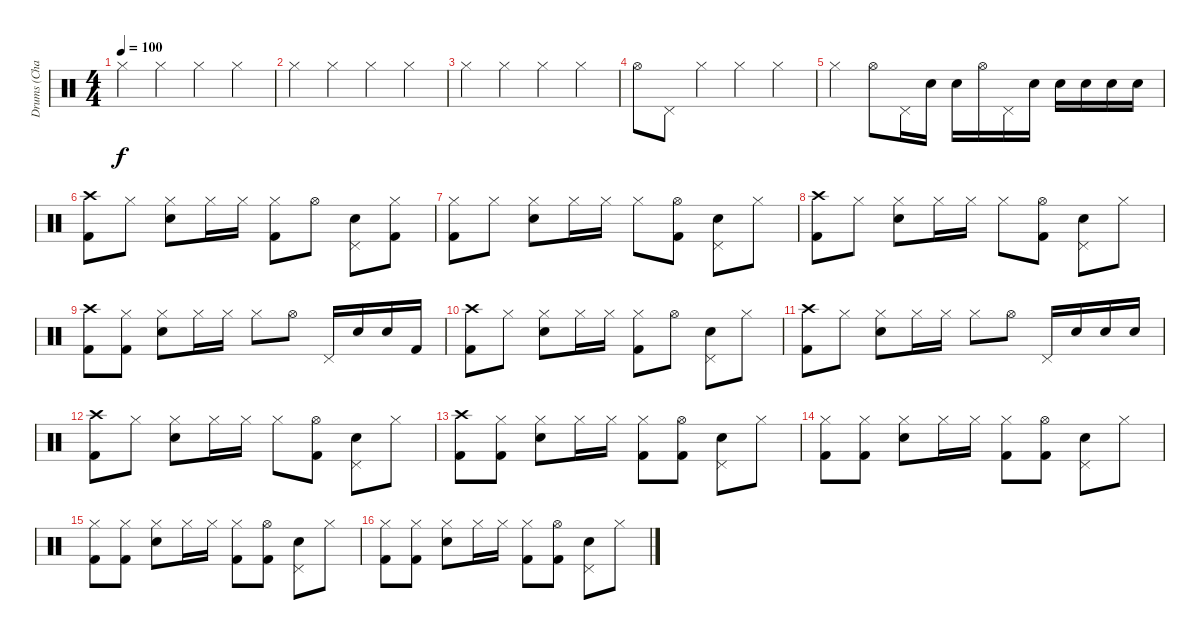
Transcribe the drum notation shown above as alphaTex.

\track ("Drums (Charlie)" "Drums (Cha") {instrument percussion}
\staff {score}
\articulation defaults
\ts (4 4)
\tempo 100
\clef neutral
\ks c "Hi-Hat (closed)".4{dy f} "Hi-Hat (closed)".4 "Hi-Hat (closed)".4 "Hi-Hat (closed)".4
|
"Hi-Hat (closed)".4 "Hi-Hat (closed)".4 "Hi-Hat (closed)".4 "Hi-Hat (closed)".4 |
"Hi-Hat (closed)".4 "Hi-Hat (closed)".4 "Hi-Hat (closed)".4 "Hi-Hat (closed)".4 |
"Hi-Hat (open)".8 "Pedal Hi-Hat (hit)".8 "Hi-Hat (closed)".4 "Hi-Hat (closed)".4 "Hi-Hat (closed)".4 |
"Hi-Hat (closed)".4 "Hi-Hat (open)".8 "Pedal Hi-Hat (hit)".16 "Electric Snare (hit)".16 "Electric Snare (hit)".16 "Hi-Hat (open)".16 "Pedal Hi-Hat (hit)".16 "Electric Snare (hit)".16 "Electric Snare (hit)".16 "Electric Snare (hit)".16 "Electric Snare (hit)".16 "Electric Snare (hit)".16 |
("Crash high (hit)" "Kick (hit) 2").8 "Hi-Hat (closed)".8 ("Hi-Hat (closed)" "Electric Snare (hit)").8 "Hi-Hat (closed)".16 "Hi-Hat (closed)".16 ("Hi-Hat (closed)" "Kick (hit) 2").8 "Hi-Hat (open)".8 ("Pedal Hi-Hat (hit)" "Electric Snare (hit)").8 ("Hi-Hat (closed)" "Kick (hit) 2").8 |
("Hi-Hat (closed)" "Kick (hit) 2").8 "Hi-Hat (closed)".8 ("Hi-Hat (closed)" "Electric Snare (hit)").8 "Hi-Hat (closed)".16 "Hi-Hat (closed)".16 "Hi-Hat (closed)".8 ("Hi-Hat (open)" "Kick (hit) 2").8 ("Pedal Hi-Hat (hit)" "Electric Snare (hit)").8 "Hi-Hat (closed)".8 |
("Crash high (hit)" "Kick (hit) 2").8 "Hi-Hat (closed)".8 ("Hi-Hat (closed)" "Electric Snare (hit)").8 "Hi-Hat (closed)".16 "Hi-Hat (closed)".16 "Hi-Hat (closed)".8 ("Hi-Hat (open)" "Kick (hit) 2").8 ("Pedal Hi-Hat (hit)" "Electric Snare (hit)").8 "Hi-Hat (closed)".8 |
("Crash high (hit)" "Kick (hit) 2").8 ("Hi-Hat (closed)" "Kick (hit) 2").8 ("Hi-Hat (closed)" "Electric Snare (hit)").8 "Hi-Hat (closed)".16 "Hi-Hat (closed)".16 "Hi-Hat (closed)".8 "Hi-Hat (open)".8 "Pedal Hi-Hat (hit)".16 "Electric Snare (hit)".16 "Electric Snare (hit)".16 "Kick (hit) 2".16 |
("Crash high (hit)" "Kick (hit) 2").8 "Hi-Hat (closed)".8 ("Hi-Hat (closed)" "Electric Snare (hit)").8 "Hi-Hat (closed)".16 "Hi-Hat (closed)".16 ("Hi-Hat (closed)" "Kick (hit) 2").8 "Hi-Hat (open)".8 ("Pedal Hi-Hat (hit)" "Electric Snare (hit)").8 "Hi-Hat (closed)".8 |
("Crash high (hit)" "Kick (hit) 2").8 "Hi-Hat (closed)".8 ("Hi-Hat (closed)" "Electric Snare (hit)").8 "Hi-Hat (closed)".16 "Hi-Hat (closed)".16 "Hi-Hat (closed)".8 "Hi-Hat (open)".8 "Pedal Hi-Hat (hit)".16 "Electric Snare (hit)".16 "Electric Snare (hit)".16 "Electric Snare (hit)".16 |
("Crash high (hit)" "Kick (hit) 2").8 "Hi-Hat (closed)".8 ("Hi-Hat (closed)" "Electric Snare (hit)").8 "Hi-Hat (closed)".16 "Hi-Hat (closed)".16 "Hi-Hat (closed)".8 ("Hi-Hat (open)" "Kick (hit) 2").8 ("Pedal Hi-Hat (hit)" "Electric Snare (hit)").8 "Hi-Hat (closed)".8 |
("Crash high (hit)" "Kick (hit) 2").8 ("Hi-Hat (closed)" "Kick (hit) 2").8 ("Hi-Hat (closed)" "Electric Snare (hit)").8 "Hi-Hat (closed)".16 "Hi-Hat (closed)".16 ("Hi-Hat (closed)" "Kick (hit) 2").8 ("Hi-Hat (open)" "Kick (hit) 2").8 ("Pedal Hi-Hat (hit)" "Electric Snare (hit)").8 "Hi-Hat (closed)".8 |
("Hi-Hat (closed)" "Kick (hit) 2").8 ("Hi-Hat (closed)" "Kick (hit) 2").8 ("Hi-Hat (closed)" "Electric Snare (hit)").8 "Hi-Hat (closed)".16 "Hi-Hat (closed)".16 ("Hi-Hat (closed)" "Kick (hit) 2").8 ("Hi-Hat (open)" "Kick (hit) 2").8 ("Pedal Hi-Hat (hit)" "Electric Snare (hit)").8 "Hi-Hat (closed)".8 |
("Hi-Hat (closed)" "Kick (hit) 2").8 ("Hi-Hat (closed)" "Kick (hit) 2").8 ("Hi-Hat (closed)" "Electric Snare (hit)").8 "Hi-Hat (closed)".16 "Hi-Hat (closed)".16 ("Hi-Hat (closed)" "Kick (hit) 2").8 ("Hi-Hat (open)" "Kick (hit) 2").8 ("Pedal Hi-Hat (hit)" "Electric Snare (hit)").8 "Hi-Hat (closed)".8 |
("Hi-Hat (closed)" "Kick (hit) 2").8 ("Hi-Hat (closed)" "Kick (hit) 2").8 ("Hi-Hat (closed)" "Electric Snare (hit)").8 "Hi-Hat (closed)".16 "Hi-Hat (closed)".16 ("Hi-Hat (closed)" "Kick (hit) 2").8 ("Hi-Hat (open)" "Kick (hit) 2").8 ("Pedal Hi-Hat (hit)" "Electric Snare (hit)").8 "Hi-Hat (closed)".8
